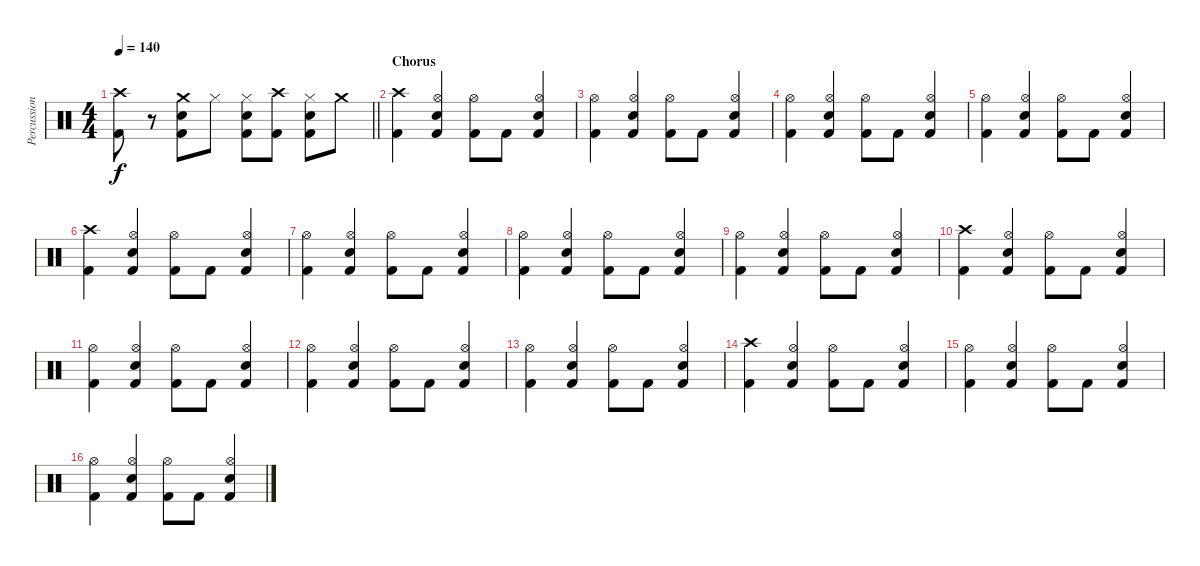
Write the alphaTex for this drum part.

\track ("Percussions" "Percussion") {instrument percussion}
\staff {score}
\articulation defaults
\ts (4 4)
\tempo 140
\clef neutral
\barLineRight lightlight
\ks c
("Crash high (hit)" "Kick (hit) 2").8{dy f} r.8 ("Crash medium (hit)" "Snare (hit) 2" "Kick (hit) 2").8 "Hi-Hat (closed)".8 ("Hi-Hat (closed)" "Snare (hit) 2" "Kick (hit) 2").8 ("Crash high (hit)" "Kick (hit) 2").8 ("Hi-Hat (closed)" "Snare (hit) 2" "Kick (hit) 2").8 "Crash medium (hit)".8 |
\section ("" "Chorus")
("Crash high (hit)" "Kick (hit) 2").4 ("Hi-Hat (open)" "Electric Snare (hit)" "Kick (hit) 2").4 ("Hi-Hat (open)" "Kick (hit) 2").8 "Kick (hit) 2".8 ("Hi-Hat (open)" "Electric Snare (hit)" "Kick (hit) 2").4 |
("Hi-Hat (open)" "Kick (hit) 2").4 ("Hi-Hat (open)" "Electric Snare (hit)" "Kick (hit) 2").4 ("Hi-Hat (open)" "Kick (hit) 2").8 "Kick (hit) 2".8 ("Hi-Hat (open)" "Electric Snare (hit)" "Kick (hit) 2").4 |
("Hi-Hat (open)" "Kick (hit) 2").4 ("Hi-Hat (open)" "Electric Snare (hit)" "Kick (hit) 2").4 ("Hi-Hat (open)" "Kick (hit) 2").8 "Kick (hit) 2".8 ("Hi-Hat (open)" "Electric Snare (hit)" "Kick (hit) 2").4 |
("Hi-Hat (open)" "Kick (hit) 2").4 ("Hi-Hat (open)" "Electric Snare (hit)" "Kick (hit) 2").4 ("Hi-Hat (open)" "Kick (hit) 2").8 "Kick (hit) 2".8 ("Hi-Hat (open)" "Electric Snare (hit)" "Kick (hit) 2").4 |
("Crash high (hit)" "Kick (hit) 2").4 ("Hi-Hat (open)" "Electric Snare (hit)" "Kick (hit) 2").4 ("Hi-Hat (open)" "Kick (hit) 2").8 "Kick (hit) 2".8 ("Hi-Hat (open)" "Electric Snare (hit)" "Kick (hit) 2").4 |
("Hi-Hat (open)" "Kick (hit) 2").4 ("Hi-Hat (open)" "Electric Snare (hit)" "Kick (hit) 2").4 ("Hi-Hat (open)" "Kick (hit) 2").8 "Kick (hit) 2".8 ("Hi-Hat (open)" "Electric Snare (hit)" "Kick (hit) 2").4 |
("Hi-Hat (open)" "Kick (hit) 2").4 ("Hi-Hat (open)" "Electric Snare (hit)" "Kick (hit) 2").4 ("Hi-Hat (open)" "Kick (hit) 2").8 "Kick (hit) 2".8 ("Hi-Hat (open)" "Electric Snare (hit)" "Kick (hit) 2").4 |
("Hi-Hat (open)" "Kick (hit) 2").4 ("Hi-Hat (open)" "Electric Snare (hit)" "Kick (hit) 2").4 ("Hi-Hat (open)" "Kick (hit) 2").8 "Kick (hit) 2".8 ("Hi-Hat (open)" "Electric Snare (hit)" "Kick (hit) 2").4 |
("Crash high (hit)" "Kick (hit) 2").4 ("Hi-Hat (open)" "Electric Snare (hit)" "Kick (hit) 2").4 ("Hi-Hat (open)" "Kick (hit) 2").8 "Kick (hit) 2".8 ("Hi-Hat (open)" "Electric Snare (hit)" "Kick (hit) 2").4 |
("Hi-Hat (open)" "Kick (hit) 2").4 ("Hi-Hat (open)" "Electric Snare (hit)" "Kick (hit) 2").4 ("Hi-Hat (open)" "Kick (hit) 2").8 "Kick (hit) 2".8 ("Hi-Hat (open)" "Electric Snare (hit)" "Kick (hit) 2").4 |
("Hi-Hat (open)" "Kick (hit) 2").4 ("Hi-Hat (open)" "Electric Snare (hit)" "Kick (hit) 2").4 ("Hi-Hat (open)" "Kick (hit) 2").8 "Kick (hit) 2".8 ("Hi-Hat (open)" "Electric Snare (hit)" "Kick (hit) 2").4 |
("Hi-Hat (open)" "Kick (hit) 2").4 ("Hi-Hat (open)" "Electric Snare (hit)" "Kick (hit) 2").4 ("Hi-Hat (open)" "Kick (hit) 2").8 "Kick (hit) 2".8 ("Hi-Hat (open)" "Electric Snare (hit)" "Kick (hit) 2").4 |
("Crash high (hit)" "Kick (hit) 2").4 ("Hi-Hat (open)" "Electric Snare (hit)" "Kick (hit) 2").4 ("Hi-Hat (open)" "Kick (hit) 2").8 "Kick (hit) 2".8 ("Hi-Hat (open)" "Electric Snare (hit)" "Kick (hit) 2").4 |
("Hi-Hat (open)" "Kick (hit) 2").4 ("Hi-Hat (open)" "Electric Snare (hit)" "Kick (hit) 2").4 ("Hi-Hat (open)" "Kick (hit) 2").8 "Kick (hit) 2".8 ("Hi-Hat (open)" "Electric Snare (hit)" "Kick (hit) 2").4 |
("Hi-Hat (open)" "Kick (hit) 2").4 ("Hi-Hat (open)" "Electric Snare (hit)" "Kick (hit) 2").4 ("Hi-Hat (open)" "Kick (hit) 2").8 "Kick (hit) 2".8 ("Hi-Hat (open)" "Electric Snare (hit)" "Kick (hit) 2").4
